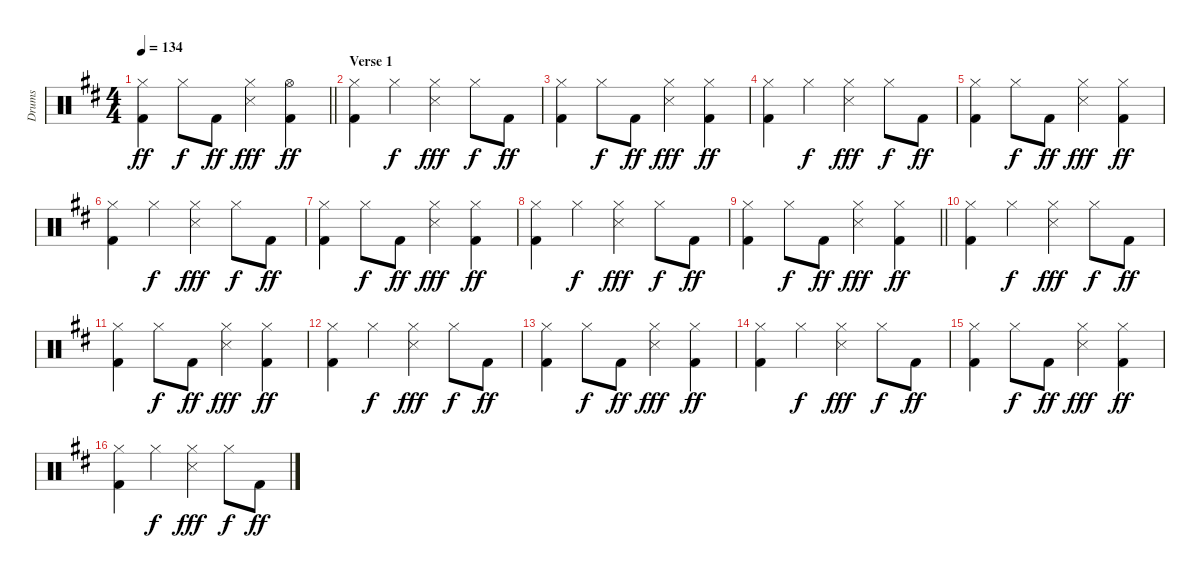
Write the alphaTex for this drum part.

\track ("Drums" "Drums") {instrument percussion}
\staff {score}
\articulation defaults
\ts (4 4)
\tempo 134
\clef neutral
\barLineRight lightlight
\ks d
("Kick (hit) 2" "Hi-Hat (closed)").4{dy ff} "Hi-Hat (closed)".8{dy f} "Kick (hit) 2".8{dy ff} ("Snare (side stick) 3" "Hi-Hat (closed)").4{dy fff} ("Kick (hit) 2" "Hi-Hat (open)").4{dy ff} |
\section ("" "Verse 1")
("Kick (hit) 2" "Hi-Hat (closed)").4 "Hi-Hat (closed)".4{dy f} ("Snare (side stick) 3" "Hi-Hat (closed)").4{dy fff} "Hi-Hat (closed)".8{dy f} "Kick (hit) 2".8{dy ff} |
("Kick (hit) 2" "Hi-Hat (closed)").4 "Hi-Hat (closed)".8{dy f} "Kick (hit) 2".8{dy ff} ("Snare (side stick) 3" "Hi-Hat (closed)").4{dy fff} ("Kick (hit) 2" "Hi-Hat (closed)").4{dy ff} |
("Kick (hit) 2" "Hi-Hat (closed)").4 "Hi-Hat (closed)".4{dy f} ("Snare (side stick) 3" "Hi-Hat (closed)").4{dy fff} "Hi-Hat (closed)".8{dy f} "Kick (hit) 2".8{dy ff} |
("Kick (hit) 2" "Hi-Hat (closed)").4 "Hi-Hat (closed)".8{dy f} "Kick (hit) 2".8{dy ff} ("Snare (side stick) 3" "Hi-Hat (closed)").4{dy fff} ("Kick (hit) 2" "Hi-Hat (closed)").4{dy ff} |
("Kick (hit) 2" "Hi-Hat (closed)").4 "Hi-Hat (closed)".4{dy f} ("Snare (side stick) 3" "Hi-Hat (closed)").4{dy fff} "Hi-Hat (closed)".8{dy f} "Kick (hit) 2".8{dy ff} |
("Kick (hit) 2" "Hi-Hat (closed)").4 "Hi-Hat (closed)".8{dy f} "Kick (hit) 2".8{dy ff} ("Snare (side stick) 3" "Hi-Hat (closed)").4{dy fff} ("Kick (hit) 2" "Hi-Hat (closed)").4{dy ff} |
("Kick (hit) 2" "Hi-Hat (closed)").4 "Hi-Hat (closed)".4{dy f} ("Snare (side stick) 3" "Hi-Hat (closed)").4{dy fff} "Hi-Hat (closed)".8{dy f} "Kick (hit) 2".8{dy ff} |
\barLineRight lightlight
("Kick (hit) 2" "Hi-Hat (closed)").4 "Hi-Hat (closed)".8{dy f} "Kick (hit) 2".8{dy ff} ("Snare (side stick) 3" "Hi-Hat (closed)").4{dy fff} ("Kick (hit) 2" "Hi-Hat (closed)").4{dy ff} |
("Kick (hit) 2" "Hi-Hat (closed)").4 "Hi-Hat (closed)".4{dy f} ("Snare (side stick) 3" "Hi-Hat (closed)").4{dy fff} "Hi-Hat (closed)".8{dy f} "Kick (hit) 2".8{dy ff} |
("Kick (hit) 2" "Hi-Hat (closed)").4 "Hi-Hat (closed)".8{dy f} "Kick (hit) 2".8{dy ff} ("Snare (side stick) 3" "Hi-Hat (closed)").4{dy fff} ("Kick (hit) 2" "Hi-Hat (closed)").4{dy ff} |
("Kick (hit) 2" "Hi-Hat (closed)").4 "Hi-Hat (closed)".4{dy f} ("Snare (side stick) 3" "Hi-Hat (closed)").4{dy fff} "Hi-Hat (closed)".8{dy f} "Kick (hit) 2".8{dy ff} |
("Kick (hit) 2" "Hi-Hat (closed)").4 "Hi-Hat (closed)".8{dy f} "Kick (hit) 2".8{dy ff} ("Snare (side stick) 3" "Hi-Hat (closed)").4{dy fff} ("Kick (hit) 2" "Hi-Hat (closed)").4{dy ff} |
("Kick (hit) 2" "Hi-Hat (closed)").4 "Hi-Hat (closed)".4{dy f} ("Snare (side stick) 3" "Hi-Hat (closed)").4{dy fff} "Hi-Hat (closed)".8{dy f} "Kick (hit) 2".8{dy ff} |
("Kick (hit) 2" "Hi-Hat (closed)").4 "Hi-Hat (closed)".8{dy f} "Kick (hit) 2".8{dy ff} ("Snare (side stick) 3" "Hi-Hat (closed)").4{dy fff} ("Kick (hit) 2" "Hi-Hat (closed)").4{dy ff} |
("Kick (hit) 2" "Hi-Hat (closed)").4 "Hi-Hat (closed)".4{dy f} ("Snare (side stick) 3" "Hi-Hat (closed)").4{dy fff} "Hi-Hat (closed)".8{dy f} "Kick (hit) 2".8{dy ff}
